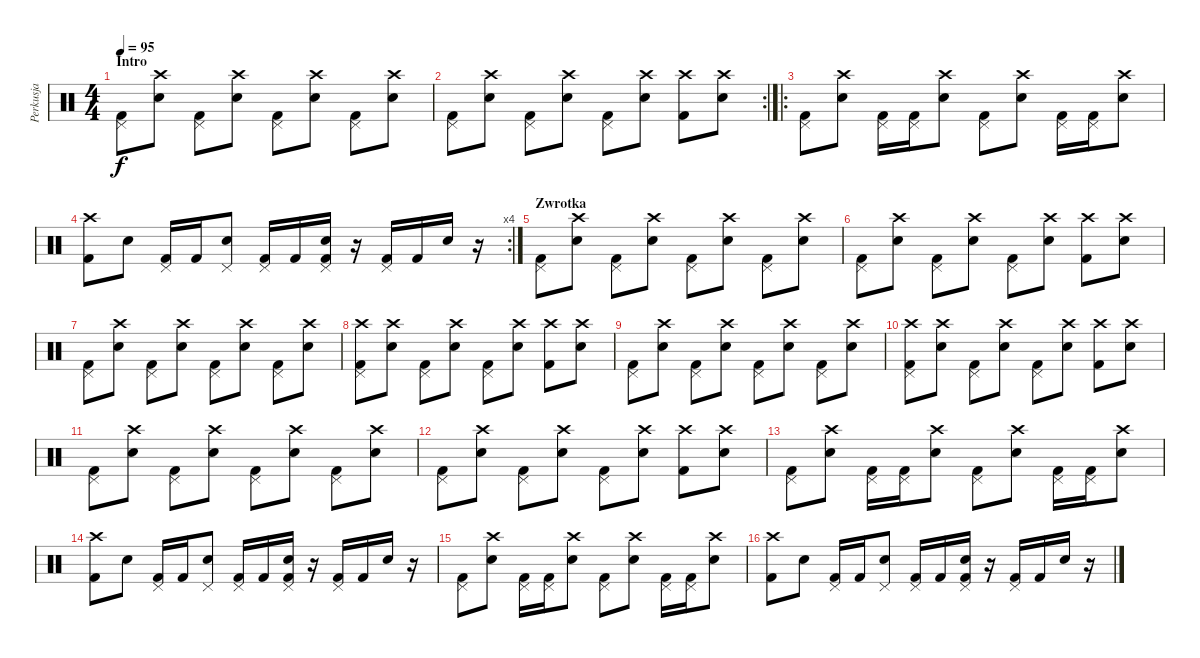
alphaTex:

\track ("Perkusja" "Perkusja") {instrument percussion}
\staff {score}
\articulation defaults
\ts (4 4)
\section ("" "Intro")
\tempo 95
\clef neutral
\ks c
("Pedal Hi-Hat (hit)" "Kick (hit) 2").8{dy f} ("Crash high (hit)" "Snare (hit) 2").8 ("Pedal Hi-Hat (hit)" "Kick (hit) 2").8 ("Crash high (hit)" "Snare (hit) 2").8 ("Pedal Hi-Hat (hit)" "Kick (hit) 2").8 ("Crash high (hit)" "Snare (hit) 2").8 ("Pedal Hi-Hat (hit)" "Kick (hit) 2").8 ("Crash high (hit)" "Snare (hit) 2").8 |
\rc 2
("Pedal Hi-Hat (hit)" "Kick (hit) 2").8 ("Crash high (hit)" "Snare (hit) 2").8 ("Pedal Hi-Hat (hit)" "Kick (hit) 2").8 ("Crash high (hit)" "Snare (hit) 2").8 ("Pedal Hi-Hat (hit)" "Kick (hit) 2").8 ("Crash high (hit)" "Snare (hit) 2").8 ("Crash high (hit)" "Kick (hit) 2").8 ("Crash high (hit)" "Snare (hit) 2").8 |
\ro
("Pedal Hi-Hat (hit)" "Kick (hit) 2").8 ("Crash high (hit)" "Snare (hit) 2").8 ("Pedal Hi-Hat (hit)" "Kick (hit) 2").16 ("Pedal Hi-Hat (hit)" "Kick (hit) 2").16 ("Crash high (hit)" "Snare (hit) 2").8 ("Pedal Hi-Hat (hit)" "Kick (hit) 2").8 ("Crash high (hit)" "Snare (hit) 2").8 ("Pedal Hi-Hat (hit)" "Kick (hit) 2").16 ("Pedal Hi-Hat (hit)" "Kick (hit) 2").16 ("Crash high (hit)" "Snare (hit) 2").8 |
\rc 4
("Crash high (hit)" "Kick (hit) 2").8 "Snare (hit) 2".8 ("Pedal Hi-Hat (hit)" "Kick (hit) 2").16 "Kick (hit) 2".16 ("Pedal Hi-Hat (hit)" "Snare (hit) 2").8 ("Pedal Hi-Hat (hit)" "Kick (hit) 2").16 "Kick (hit) 2".16 ("Pedal Hi-Hat (hit)" "Snare (hit) 2" "Kick (hit) 2").16 r.16 ("Pedal Hi-Hat (hit)" "Kick (hit) 2").16 "Kick (hit) 2".16 "Snare (hit) 2".16 r.16 |
\section ("" "Zwrotka")
("Pedal Hi-Hat (hit)" "Kick (hit) 2").8 ("Crash high (hit)" "Snare (hit) 2").8 ("Pedal Hi-Hat (hit)" "Kick (hit) 2").8 ("Crash high (hit)" "Snare (hit) 2").8 ("Pedal Hi-Hat (hit)" "Kick (hit) 2").8 ("Crash high (hit)" "Snare (hit) 2").8 ("Pedal Hi-Hat (hit)" "Kick (hit) 2").8 ("Crash high (hit)" "Snare (hit) 2").8 |
("Pedal Hi-Hat (hit)" "Kick (hit) 2").8 ("Crash high (hit)" "Snare (hit) 2").8 ("Pedal Hi-Hat (hit)" "Kick (hit) 2").8 ("Crash high (hit)" "Snare (hit) 2").8 ("Pedal Hi-Hat (hit)" "Kick (hit) 2").8 ("Crash high (hit)" "Snare (hit) 2").8 ("Crash high (hit)" "Kick (hit) 2").8 ("Crash high (hit)" "Snare (hit) 2").8 |
("Pedal Hi-Hat (hit)" "Kick (hit) 2").8 ("Crash high (hit)" "Snare (hit) 2").8 ("Pedal Hi-Hat (hit)" "Kick (hit) 2").8 ("Crash high (hit)" "Snare (hit) 2").8 ("Pedal Hi-Hat (hit)" "Kick (hit) 2").8 ("Crash high (hit)" "Snare (hit) 2").8 ("Pedal Hi-Hat (hit)" "Kick (hit) 2").8 ("Crash high (hit)" "Snare (hit) 2").8 |
("Pedal Hi-Hat (hit)" "Crash high (hit)" "Kick (hit) 2").8 ("Crash high (hit)" "Snare (hit) 2").8 ("Pedal Hi-Hat (hit)" "Kick (hit) 2").8 ("Crash high (hit)" "Snare (hit) 2").8 ("Pedal Hi-Hat (hit)" "Kick (hit) 2").8 ("Crash high (hit)" "Snare (hit) 2").8 ("Crash high (hit)" "Kick (hit) 2").8 ("Crash high (hit)" "Snare (hit) 2").8 |
("Pedal Hi-Hat (hit)" "Kick (hit) 2").8 ("Crash high (hit)" "Snare (hit) 2").8 ("Pedal Hi-Hat (hit)" "Kick (hit) 2").8 ("Crash high (hit)" "Snare (hit) 2").8 ("Pedal Hi-Hat (hit)" "Kick (hit) 2").8 ("Crash high (hit)" "Snare (hit) 2").8 ("Pedal Hi-Hat (hit)" "Kick (hit) 2").8 ("Crash high (hit)" "Snare (hit) 2").8 |
("Pedal Hi-Hat (hit)" "Crash high (hit)" "Kick (hit) 2").8 ("Crash high (hit)" "Snare (hit) 2").8 ("Pedal Hi-Hat (hit)" "Kick (hit) 2").8 ("Crash high (hit)" "Snare (hit) 2").8 ("Pedal Hi-Hat (hit)" "Kick (hit) 2").8 ("Crash high (hit)" "Snare (hit) 2").8 ("Crash high (hit)" "Kick (hit) 2").8 ("Crash high (hit)" "Snare (hit) 2").8 |
("Pedal Hi-Hat (hit)" "Kick (hit) 2").8 ("Crash high (hit)" "Snare (hit) 2").8 ("Pedal Hi-Hat (hit)" "Kick (hit) 2").8 ("Crash high (hit)" "Snare (hit) 2").8 ("Pedal Hi-Hat (hit)" "Kick (hit) 2").8 ("Crash high (hit)" "Snare (hit) 2").8 ("Pedal Hi-Hat (hit)" "Kick (hit) 2").8 ("Crash high (hit)" "Snare (hit) 2").8 |
("Pedal Hi-Hat (hit)" "Kick (hit) 2").8 ("Crash high (hit)" "Snare (hit) 2").8 ("Pedal Hi-Hat (hit)" "Kick (hit) 2").8 ("Crash high (hit)" "Snare (hit) 2").8 ("Pedal Hi-Hat (hit)" "Kick (hit) 2").8 ("Crash high (hit)" "Snare (hit) 2").8 ("Crash high (hit)" "Kick (hit) 2").8 ("Crash high (hit)" "Snare (hit) 2").8 |
("Pedal Hi-Hat (hit)" "Kick (hit) 2").8 ("Crash high (hit)" "Snare (hit) 2").8 ("Pedal Hi-Hat (hit)" "Kick (hit) 2").16 ("Pedal Hi-Hat (hit)" "Kick (hit) 2").16 ("Crash high (hit)" "Snare (hit) 2").8 ("Pedal Hi-Hat (hit)" "Kick (hit) 2").8 ("Crash high (hit)" "Snare (hit) 2").8 ("Pedal Hi-Hat (hit)" "Kick (hit) 2").16 ("Pedal Hi-Hat (hit)" "Kick (hit) 2").16 ("Crash high (hit)" "Snare (hit) 2").8 |
("Crash high (hit)" "Kick (hit) 2").8 "Snare (hit) 2".8 ("Pedal Hi-Hat (hit)" "Kick (hit) 2").16 "Kick (hit) 2".16 ("Pedal Hi-Hat (hit)" "Snare (hit) 2").8 ("Pedal Hi-Hat (hit)" "Kick (hit) 2").16 "Kick (hit) 2".16 ("Pedal Hi-Hat (hit)" "Snare (hit) 2" "Kick (hit) 2").16 r.16 ("Pedal Hi-Hat (hit)" "Kick (hit) 2").16 "Kick (hit) 2".16 "Snare (hit) 2".16 r.16 |
("Pedal Hi-Hat (hit)" "Kick (hit) 2").8 ("Crash high (hit)" "Snare (hit) 2").8 ("Pedal Hi-Hat (hit)" "Kick (hit) 2").16 ("Pedal Hi-Hat (hit)" "Kick (hit) 2").16 ("Crash high (hit)" "Snare (hit) 2").8 ("Pedal Hi-Hat (hit)" "Kick (hit) 2").8 ("Crash high (hit)" "Snare (hit) 2").8 ("Pedal Hi-Hat (hit)" "Kick (hit) 2").16 ("Pedal Hi-Hat (hit)" "Kick (hit) 2").16 ("Crash high (hit)" "Snare (hit) 2").8 |
("Crash high (hit)" "Kick (hit) 2").8 "Snare (hit) 2".8 ("Pedal Hi-Hat (hit)" "Kick (hit) 2").16 "Kick (hit) 2".16 ("Pedal Hi-Hat (hit)" "Snare (hit) 2").8 ("Pedal Hi-Hat (hit)" "Kick (hit) 2").16 "Kick (hit) 2".16 ("Pedal Hi-Hat (hit)" "Snare (hit) 2" "Kick (hit) 2").16 r.16 ("Pedal Hi-Hat (hit)" "Kick (hit) 2").16 "Kick (hit) 2".16 "Snare (hit) 2".16 r.16
